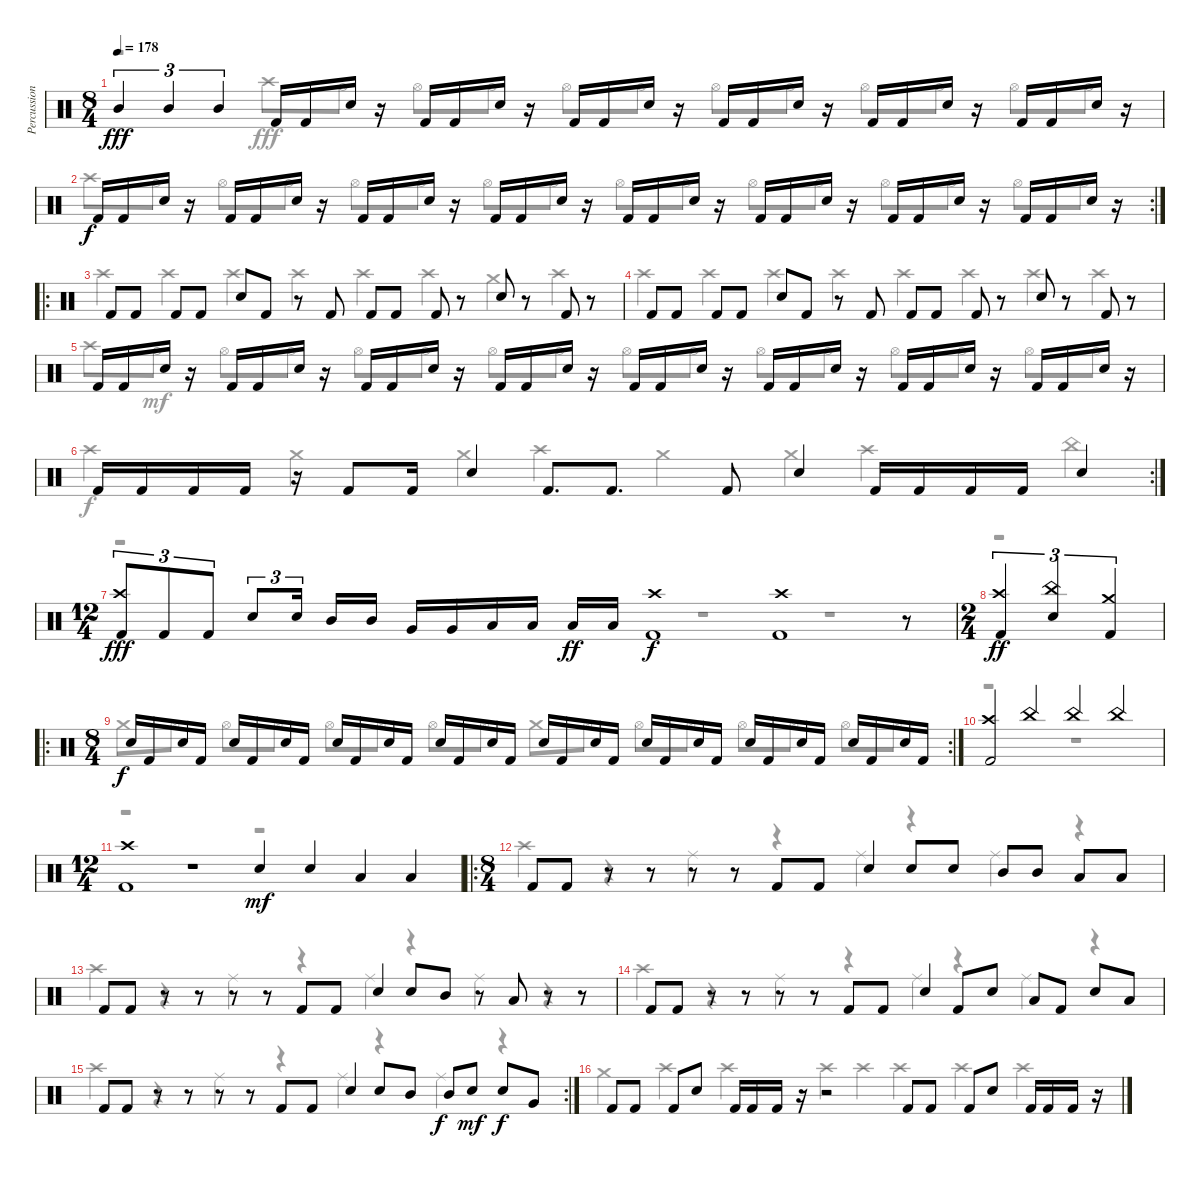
\track ("Percussion" "Percussion") {instrument percussion}
\staff {score}
\articulation defaults
\voice
\ts (8 4)
\tempo 178
\clef neutral
\ks c "Mid Tom (hit)".4{tu (3 2) dy fff} "Mid Tom (hit)".4{tu (3 2)} "Mid Tom (hit)".4{tu (3 2)} "Kick (hit) 2".16 "Kick (hit) 2".16 "Electric Snare (hit)".16
r.16 "Kick (hit) 2".16 "Kick (hit) 2".16 "Electric Snare (hit)".16 r.16 "Kick (hit) 2".16 "Kick (hit) 2".16 "Electric Snare (hit)".16 r.16 "Kick (hit) 2".16 "Kick (hit) 2".16 "Electric Snare (hit)".16 r.16 "Kick (hit) 2".16 "Kick (hit) 2".16 "Electric Snare (hit)".16 r.16 "Kick (hit) 2".16 "Kick (hit) 2".16 "Electric Snare (hit)".16 r.16 |
\rc 2 "Kick (hit) 2".16{dy f} "Kick (hit) 2".16 "Electric Snare (hit)".16
r.16 "Kick (hit) 2".16 "Kick (hit) 2".16 "Electric Snare (hit)".16 r.16 "Kick (hit) 2".16 "Kick (hit) 2".16 "Electric Snare (hit)".16 r.16 "Kick (hit) 2".16 "Kick (hit) 2".16 "Electric Snare (hit)".16 r.16 "Kick (hit) 2".16 "Kick (hit) 2".16 "Electric Snare (hit)".16 r.16 "Kick (hit) 2".16 "Kick (hit) 2".16 "Electric Snare (hit)".16 r.16 "Kick (hit) 2".16 "Kick (hit) 2".16 "Electric Snare (hit)".16 r.16 "Kick (hit) 2".16 "Kick (hit) 2".16 "Electric Snare (hit)".16 r.16 |
\ro "Kick (hit) 2".8 "Kick (hit) 2".8 "Kick (hit) 2".8 "Kick (hit) 2".8 "Electric Snare (hit)".8 "Kick (hit) 2".8
r.8 "Kick (hit) 2".8 "Kick (hit) 2".8 "Kick (hit) 2".8 "Kick (hit) 2".8 r.8 "Electric Snare (hit)".8 r.8 "Kick (hit) 2".8 r.8 |
"Kick (hit) 2".8 "Kick (hit) 2".8 "Kick (hit) 2".8 "Kick (hit) 2".8 "Electric Snare (hit)".8 "Kick (hit) 2".8 r.8 "Kick (hit) 2".8 "Kick (hit) 2".8 "Kick (hit) 2".8 "Kick (hit) 2".8 r.8 "Electric Snare (hit)".8 r.8 "Kick (hit) 2".8 r.8 |
"Kick (hit) 2".16 "Kick (hit) 2".16 "Electric Snare (hit)".16 r.16 "Kick (hit) 2".16 "Kick (hit) 2".16 "Electric Snare (hit)".16 r.16 "Kick (hit) 2".16 "Kick (hit) 2".16 "Electric Snare (hit)".16 r.16 "Kick (hit) 2".16 "Kick (hit) 2".16 "Electric Snare (hit)".16 r.16 "Kick (hit) 2".16 "Kick (hit) 2".16 "Electric Snare (hit)".16 r.16 "Kick (hit) 2".16 "Kick (hit) 2".16 "Electric Snare (hit)".16 r.16 "Kick (hit) 2".16 "Kick (hit) 2".16 "Electric Snare (hit)".16 r.16 "Kick (hit) 2".16 "Kick (hit) 2".16 "Electric Snare (hit)".16 r.16 |
\rc 2 "Kick (hit) 2".16 "Kick (hit) 2".16 "Kick (hit) 2".16 "Kick (hit) 2".16
r.16 "Kick (hit) 2".8 "Kick (hit) 2".16 "Electric Snare (hit)".4 "Kick (hit) 2".8{d} "Kick (hit) 2".8{d} "Kick (hit) 2".8 "Electric Snare (hit)".4 "Kick (hit) 2".16 "Kick (hit) 2".16 "Kick (hit) 2".16 "Kick (hit) 2".16 "Electric Snare (hit)".4 |
\ts (12 4)
("Crash high (hit)" "Kick (hit) 2").8{tu (3 2) dy fff} "Kick (hit) 2".8{tu (3 2)} "Kick (hit) 2".8{tu (3 2)} "Electric Snare (hit)".8{tu (3 2)} "Electric Snare (hit)".16{tu (3 2) beam splitsecondary} "Mid Tom (hit)".16 "Mid Tom (hit)".16 "Very Low Tom (hit)".16 "Very Low Tom (hit)".16 "Low Floor Tom (hit)".16 "Low Floor Tom (hit)".16 "Low Floor Tom (hit)".16{dy ff} "Low Floor Tom (hit)".16 ("Crash high (hit)" "Kick (hit) 2").1{dy f} ("Crash high (hit)" "Kick (hit) 2").1 r.8 |
\ts (2 4)
("Crash high (hit)" "Kick (hit) 2").4{tu (3 2) dy ff} ("China (hit)" "Electric Snare (hit)").4{tu (3 2)} ("Crash medium (hit)" "Kick (hit) 2").4{tu (3 2)} |
\ro
\rc 2
\ts (8 4)
"Electric Snare (hit)".16{dy f} "Kick (hit) 2".16 "Electric Snare (hit)".16 "Kick (hit) 2".16 "Electric Snare (hit)".16 "Kick (hit) 2".16 "Electric Snare (hit)".16 "Kick (hit) 2".16 "Electric Snare (hit)".16 "Kick (hit) 2".16 "Electric Snare (hit)".16 "Kick (hit) 2".16 "Electric Snare (hit)".16 "Kick (hit) 2".16 "Electric Snare (hit)".16 "Kick (hit) 2".16 "Electric Snare (hit)".16 "Kick (hit) 2".16 "Electric Snare (hit)".16 "Kick (hit) 2".16 "Electric Snare (hit)".16 "Kick (hit) 2".16 "Electric Snare (hit)".16 "Kick (hit) 2".16 "Electric Snare (hit)".16 "Kick (hit) 2".16 "Electric Snare (hit)".16 "Kick (hit) 2".16 "Electric Snare (hit)".16 "Kick (hit) 2".16 "Electric Snare (hit)".16 "Kick (hit) 2".16 |
("Crash high (hit)" "Kick (hit) 2").2 "China (hit)".2 "China (hit)".2 "China (hit)".2 |
\ts (12 4)
("Crash high (hit)" "Kick (hit) 2").1 r.1 "Electric Snare (hit)".4{dy mf} "Electric Snare (hit)".4 "Low Floor Tom (hit)".4 "Low Floor Tom (hit)".4 |
\ro
\ts (8 4)
"Kick (hit) 2".8 "Kick (hit) 2".8 r.8 r.8 r.8 r.8 "Kick (hit) 2".8 "Kick (hit) 2".8 "Electric Snare (hit)".4 "Electric Snare (hit)".8 "Electric Snare (hit)".8 "Mid Tom (hit)".8 "Mid Tom (hit)".8 "Low Floor Tom (hit)".8 "Low Floor Tom (hit)".8 |
"Kick (hit) 2".8 "Kick (hit) 2".8 r.8 r.8 r.8 r.8 "Kick (hit) 2".8 "Kick (hit) 2".8 "Electric Snare (hit)".4 "Electric Snare (hit)".8 "Mid Tom (hit)".8 r.8 "Low Floor Tom (hit)".8 r.8 r.8 |
"Kick (hit) 2".8 "Kick (hit) 2".8 r.8 r.8 r.8 r.8 "Kick (hit) 2".8 "Kick (hit) 2".8 "Electric Snare (hit)".4 "Kick (hit) 2".8 "Electric Snare (hit)".8 "Low Floor Tom (hit)".8 "Kick (hit) 2".8 "Electric Snare (hit)".8 "Low Floor Tom (hit)".8 |
\rc 2 "Kick (hit) 2".8 "Kick (hit) 2".8
r.8 r.8 r.8 r.8 "Kick (hit) 2".8 "Kick (hit) 2".8 "Electric Snare (hit)".4 "Electric Snare (hit)".8 "Mid Tom (hit)".8 "Mid Tom (hit)".8{dy f} "Electric Snare (hit)".8{dy mf} "Electric Snare (hit)".8{dy f} "Very Low Tom (hit)".8 |
"Kick (hit) 2".8 "Kick (hit) 2".8 "Kick (hit) 2".8 "Electric Snare (hit)".8 "Kick (hit) 2".16 "Kick (hit) 2".16 "Kick (hit) 2".16 r.16 r.2 "Kick (hit) 2".8 "Kick (hit) 2".8 "Kick (hit) 2".8 "Electric Snare (hit)".8 "Kick (hit) 2".16 "Kick (hit) 2".16 "Kick (hit) 2".16 r.16
\voice
\clef neutral
\ottava regular
\simile none
\ks c
r.2{dy f} "Crash high (hit)".8{dy fff} "Hi-Hat (open)".8 "Hi-Hat (open)".8 "Hi-Hat (open)".8 "Hi-Hat (open)".8 "Hi-Hat (open)".8 "Hi-Hat (open)".8 "Hi-Hat (open)".8 "Hi-Hat (open)".8 "Hi-Hat (open)".8 "Hi-Hat (open)".8 "Hi-Hat (open)".8 |
"Crash high (hit)".8{dy f} "Hi-Hat (open)".8 "Hi-Hat (open)".8 "Hi-Hat (open)".8 "Hi-Hat (open)".8 "Hi-Hat (open)".8 "Hi-Hat (open)".8 "Hi-Hat (open)".8 "Hi-Hat (open)".8 "Hi-Hat (open)".8 "Hi-Hat (open)".8 "Hi-Hat (open)".8 "Hi-Hat (open)".8 "Hi-Hat (open)".8 "Hi-Hat (open)".8 "Hi-Hat (open)".8 |
"Crash high (hit)".4 "Crash high (hit)".4 "Crash high (hit)".4 "Crash high (hit)".4 "Crash high (hit)".4 "Crash high (hit)".4 "Crash medium (hit)".4 "Crash high (hit)".4 |
"Crash high (hit)".4 "Crash high (hit)".4 "Crash high (hit)".4 "Crash high (hit)".4 "Crash high (hit)".4 "Crash high (hit)".4 "Crash high (hit)".4 "Crash high (hit)".4 |
"Crash high (hit)".8 "Hi-Hat (open)".8{dy mf} "Hi-Hat (open)".8 "Hi-Hat (open)".8 "Hi-Hat (open)".8 "Hi-Hat (open)".8 "Hi-Hat (open)".8 "Hi-Hat (open)".8 "Hi-Hat (open)".8 "Hi-Hat (open)".8 "Hi-Hat (open)".8 "Hi-Hat (open)".8 "Hi-Hat (open)".8 "Hi-Hat (open)".8 "Hi-Hat (open)".8 "Hi-Hat (open)".8 |
"Crash high (hit)".4{dy f} "Crash medium (hit)".4 "Crash medium (hit)".4 "Crash high (hit)".4 "Crash medium (hit)".4 "Crash medium (hit)".4 "Crash high (hit)".4 "China (hit)".4 |
r.1 r.1 r.1 |
r.2 |
"Crash medium (hit)".8 "Hi-Hat (open)".8 "Hi-Hat (open)".8 "Hi-Hat (open)".8 "Hi-Hat (open)".8 "Hi-Hat (open)".8 "Hi-Hat (open)".8 "Hi-Hat (open)".8 "Crash medium (hit)".8 "Hi-Hat (open)".8 "Hi-Hat (open)".8 "Hi-Hat (open)".8 "Hi-Hat (open)".8 "Hi-Hat (open)".8 "Hi-Hat (open)".8 "Hi-Hat (open)".8 |
r.1 r.1 |
r.1 r.1 r.1 |
"Crash high (hit)".4 r.4 "Ride (middle)".4 r.4 "Ride (middle)".4 r.4 "Ride (middle)".4 r.4 |
"Crash high (hit)".4 r.4 "Ride (middle)".4 r.4 "Ride (middle)".4 r.4 "Ride (middle)".4 r.4 |
"Crash high (hit)".4 r.4 "Ride (middle)".4 r.4 "Ride (middle)".4 r.4 "Ride (middle)".4 r.4 |
"Crash high (hit)".4 r.4 "Ride (middle)".4 r.4 "Ride (middle)".4 r.4 "Ride (middle)".4 r.4 |
"Crash medium (hit)".4 "Crash high (hit)".4 "Crash high (hit)".4 "Crash high (hit)".4 "Crash high (hit)".4 "Crash high (hit)".4 "Crash high (hit)".4 "Crash high (hit)".4
